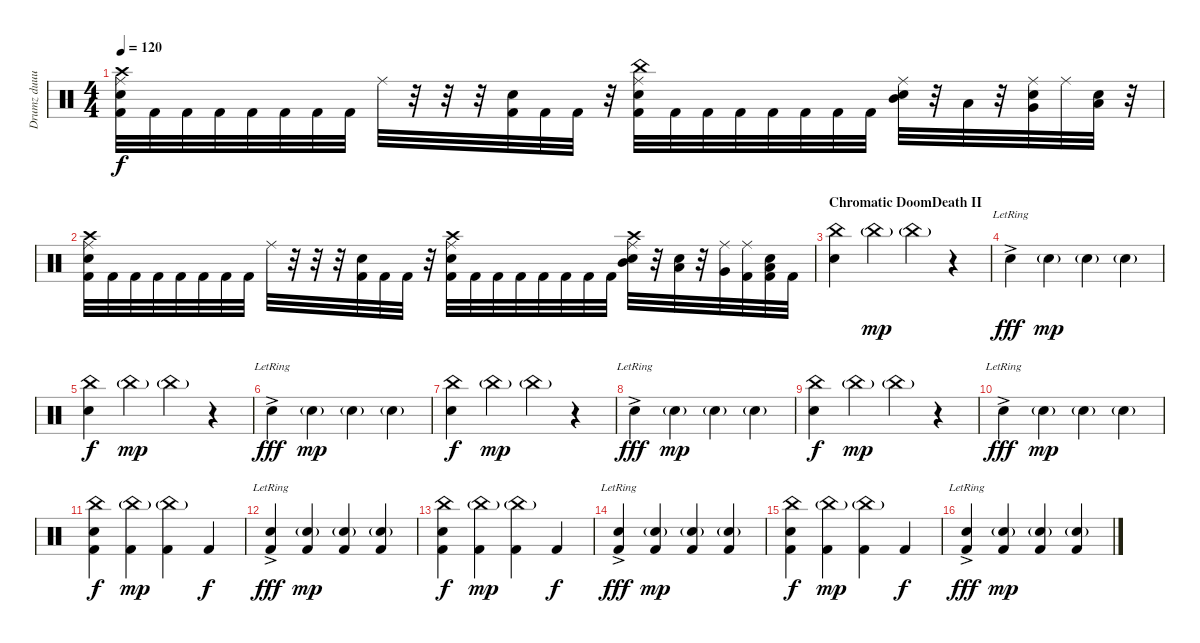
\track ("Drumz duuuuude" "Drumz duuu") {instrument percussion}
\staff {score}
\articulation defaults
\ts (4 4)
\tempo 120
\clef neutral
\ks c
("Crash high (hit)" "Kick (hit) 2" "Ride (middle)" "Electric Snare (hit)").32{dy f} "Kick (hit) 2".32 "Kick (hit) 2".32 "Kick (hit) 2".32 "Kick (hit) 2".32 "Kick (hit) 2".32 "Kick (hit) 2".32 "Kick (hit) 2".32 "Ride (middle)".32 r.32 r.32 r.32 ("Kick (hit) 2" "Electric Snare (hit)").32 "Kick (hit) 2".32 "Kick (hit) 2".32 r.32 ("China (hit)" "Kick (hit) 2" "Ride (middle)" "Electric Snare (hit)").32 "Kick (hit) 2".32 "Kick (hit) 2".32 "Kick (hit) 2".32 "Kick (hit) 2".32 "Kick (hit) 2".32 "Kick (hit) 2".32 "Kick (hit) 2".32 ("Electric Snare (hit)" "Ride (middle)" "Mid Tom (hit)").32 r.32 "Low Tom (hit)".32 r.32 ("Electric Snare (hit)" "Ride (middle)" "Very Low Tom (hit)").32 "Ride (middle)".32 ("Electric Snare (hit)" "Low Floor Tom (hit)").32 r.32 |
("Crash high (hit)" "Kick (hit) 2" "Ride (middle)" "Electric Snare (hit)").32 "Kick (hit) 2".32 "Kick (hit) 2".32 "Kick (hit) 2".32 "Kick (hit) 2".32 "Kick (hit) 2".32 "Kick (hit) 2".32 "Kick (hit) 2".32 "Ride (middle)".32 r.32 r.32 r.32 ("Kick (hit) 2" "Electric Snare (hit)").32 "Kick (hit) 2".32 "Kick (hit) 2".32 r.32 ("Kick (hit) 2" "Ride (middle)" "Crash high (hit)" "Electric Snare (hit)").32 "Kick (hit) 2".32 "Kick (hit) 2".32 "Kick (hit) 2".32 "Kick (hit) 2".32 "Kick (hit) 2".32 "Kick (hit) 2".32 "Kick (hit) 2".32 ("Electric Snare (hit)" "Ride (middle)" "Crash high (hit)" "Mid Tom (hit)").32 r.32 ("Snare (hit) 2" "Low Tom (hit)").32 r.32 ("Ride (middle)" "Very Low Tom (hit)").32 ("Kick (hit) 2" "Ride (middle)").32 ("Snare (hit) 2" "Kick (hit) 2" "Low Floor Tom (hit)").32 "Kick (hit) 2".32 |
\section ("" "Chromatic DoomDeath II")
("China (hit)" "Electric Snare (hit)").4 "China (hit)"{g}.4{dy mp} "China (hit)"{g}.4 r.4 |
"Snare (hit) 2"{ac lr}.4{dy fff volume 0} "Snare (hit) 2"{g}.4{dy mp} "Snare (hit) 2"{g}.4 "Snare (hit) 2"{g}.4 |
("China (hit)" "Electric Snare (hit)").4{dy f volume 13} "China (hit)"{g}.4{dy mp} "China (hit)"{g}.4 r.4 |
"Snare (hit) 2"{ac lr}.4{dy fff volume 0} "Snare (hit) 2"{g}.4{dy mp} "Snare (hit) 2"{g}.4 "Snare (hit) 2"{g}.4 |
("China (hit)" "Electric Snare (hit)").4{dy f volume 13} "China (hit)"{g}.4{dy mp} "China (hit)"{g}.4 r.4 |
"Snare (hit) 2"{ac lr}.4{dy fff volume 0} "Snare (hit) 2"{g}.4{dy mp} "Snare (hit) 2"{g}.4 "Snare (hit) 2"{g}.4 |
("China (hit)" "Electric Snare (hit)").4{dy f volume 13} "China (hit)"{g}.4{dy mp} "China (hit)"{g}.4 r.4 |
"Snare (hit) 2"{ac lr}.4{dy fff volume 0} "Snare (hit) 2"{g}.4{dy mp} "Snare (hit) 2"{g}.4 "Snare (hit) 2"{g}.4 |
("China (hit)" "Kick (hit) 2" "Electric Snare (hit)").4{dy f volume 13} ("China (hit)"{g} "Kick (hit) 2").4{dy mp} ("China (hit)"{g} "Kick (hit) 2").4 "Kick (hit) 2".4{dy f} |
("Kick (hit) 2" "Snare (hit) 2"{ac lr}).4{dy fff volume 0} ("Kick (hit) 2" "Snare (hit) 2"{g}).4{dy mp} ("Kick (hit) 2" "Snare (hit) 2"{g}).4 ("Kick (hit) 2" "Snare (hit) 2"{g}).4 |
("China (hit)" "Kick (hit) 2" "Electric Snare (hit)").4{dy f volume 13} ("China (hit)"{g} "Kick (hit) 2").4{dy mp} ("China (hit)"{g} "Kick (hit) 2").4 "Kick (hit) 2".4{dy f} |
("Kick (hit) 2" "Snare (hit) 2"{ac lr}).4{dy fff volume 0} ("Kick (hit) 2" "Snare (hit) 2"{g}).4{dy mp} ("Kick (hit) 2" "Snare (hit) 2"{g}).4 ("Kick (hit) 2" "Snare (hit) 2"{g}).4 |
("China (hit)" "Kick (hit) 2" "Electric Snare (hit)").4{dy f volume 13} ("China (hit)"{g} "Kick (hit) 2").4{dy mp} ("China (hit)"{g} "Kick (hit) 2").4 "Kick (hit) 2".4{dy f} |
("Kick (hit) 2" "Snare (hit) 2"{ac lr}).4{dy fff volume 0} ("Kick (hit) 2" "Snare (hit) 2"{g}).4{dy mp} ("Kick (hit) 2" "Snare (hit) 2"{g}).4 ("Kick (hit) 2" "Snare (hit) 2"{g}).4
